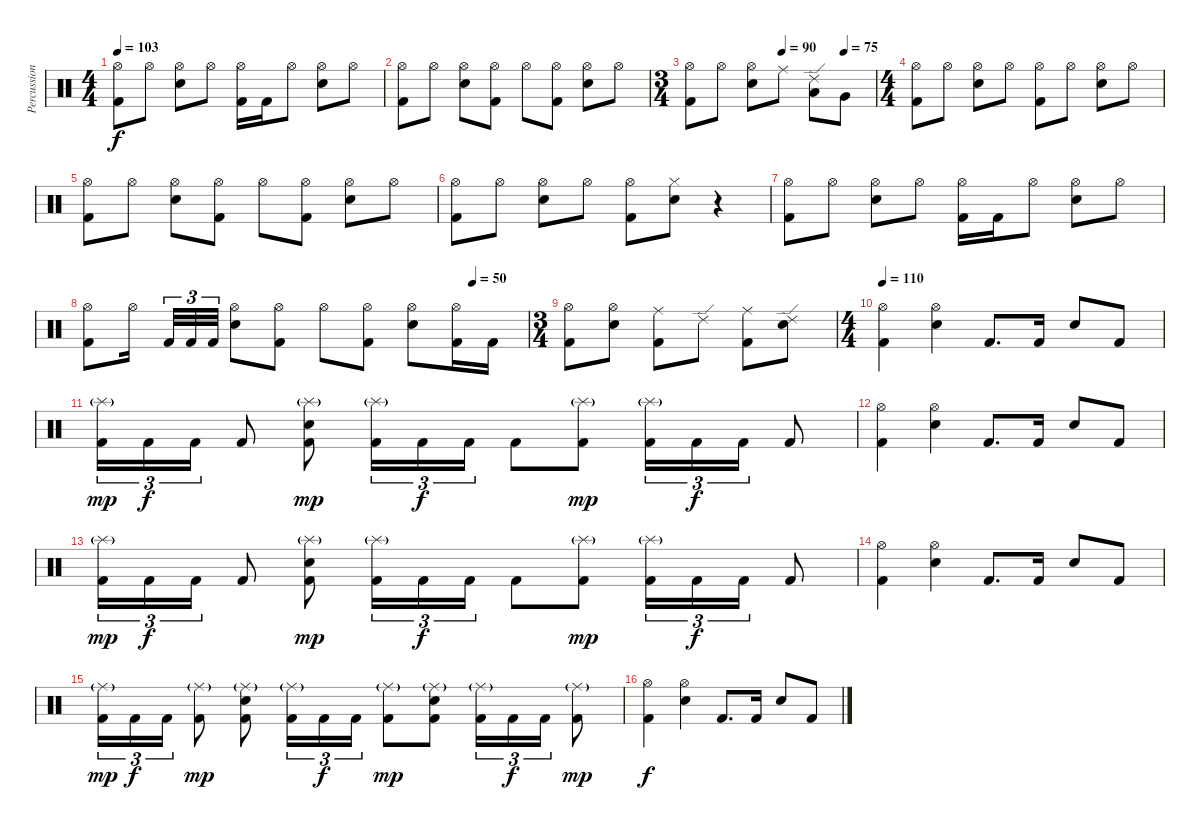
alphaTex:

\track ("Percussion" "Percussion") {instrument percussion}
\staff {score}
\articulation defaults
\ts (4 4)
\tempo 103
\clef neutral
\ks c
("Hi-Hat (open)" "Kick (hit) 2").8{dy f} "Hi-Hat (open)".8 ("Hi-Hat (open)" "Electric Snare (hit)").8 "Hi-Hat (open)".8 ("Hi-Hat (open)" "Kick (hit) 2").16 "Kick (hit) 2".16 "Hi-Hat (open)".8 ("Hi-Hat (open)" "Electric Snare (hit)").8 "Hi-Hat (open)".8 |
("Hi-Hat (open)" "Kick (hit) 2").8 "Hi-Hat (open)".8 ("Hi-Hat (open)" "Electric Snare (hit)").8 ("Hi-Hat (open)" "Kick (hit) 2").8 "Hi-Hat (open)".8 ("Hi-Hat (open)" "Kick (hit) 2").8 ("Hi-Hat (open)" "Electric Snare (hit)").8 "Hi-Hat (open)".8 |
\ts (3 4)
\tempo (90 0.5)
\tempo (75 0.8333333333333334)
("Hi-Hat (open)" "Kick (hit) 2").8 "Hi-Hat (open)".8 ("Hi-Hat (open)" "Electric Snare (hit)").8 "Ride (middle)".8 ("Ride (edge) 2" "Low Tom (hit)").8 "Very Low Tom (hit)".8 |
\ts (4 4)
("Hi-Hat (open)" "Kick (hit) 2").8 "Hi-Hat (open)".8 ("Hi-Hat (open)" "Electric Snare (hit)").8 "Hi-Hat (open)".8 ("Hi-Hat (open)" "Kick (hit) 2").8 "Hi-Hat (open)".8 ("Hi-Hat (open)" "Electric Snare (hit)").8 "Hi-Hat (open)".8 |
("Hi-Hat (open)" "Kick (hit) 2").8 "Hi-Hat (open)".8 ("Hi-Hat (open)" "Electric Snare (hit)").8 ("Hi-Hat (open)" "Kick (hit) 2").8 "Hi-Hat (open)".8 ("Hi-Hat (open)" "Kick (hit) 2").8 ("Hi-Hat (open)" "Electric Snare (hit)").8 "Hi-Hat (open)".8 |
("Hi-Hat (open)" "Kick (hit) 2").8 "Hi-Hat (open)".8 ("Hi-Hat (open)" "Electric Snare (hit)").8 "Hi-Hat (open)".8 ("Hi-Hat (open)" "Kick (hit) 2").8 ("Hi-Hat (closed)" "Electric Snare (hit)").8 r.4 |
("Hi-Hat (open)" "Kick (hit) 2").8 "Hi-Hat (open)".8 ("Hi-Hat (open)" "Electric Snare (hit)").8 "Hi-Hat (open)".8 ("Hi-Hat (open)" "Kick (hit) 2").16 "Kick (hit) 2".16 "Hi-Hat (open)".8 ("Hi-Hat (open)" "Electric Snare (hit)").8 "Hi-Hat (open)".8 |
\tempo (50 0.875)
("Hi-Hat (open)" "Kick (hit) 2").8 "Hi-Hat (open)".16{beam splitsecondary} "Kick (hit) 2".32{tu (3 2)} "Kick (hit) 2".32{tu (3 2)} "Kick (hit) 2".32{tu (3 2)} ("Hi-Hat (open)" "Electric Snare (hit)").8 ("Hi-Hat (open)" "Kick (hit) 2").8 "Hi-Hat (open)".8 ("Hi-Hat (open)" "Kick (hit) 2").8 ("Hi-Hat (open)" "Electric Snare (hit)").8 ("Hi-Hat (open)" "Kick (hit) 2").16 "Kick (hit) 2".16 |
\ts (3 4)
("Hi-Hat (open)" "Kick (hit) 2").8 ("Hi-Hat (open)" "Electric Snare (hit)").8 ("Ride (middle)" "Kick (hit) 2").8 "Ride (edge) 2".8 ("Ride (middle)" "Kick (hit) 2").8 ("Ride (edge) 2" "Electric Snare (hit)").8 |
\ts (4 4)
\tempo 110
("Hi-Hat (open)" "Kick (hit) 2").4 ("Hi-Hat (open)" "Electric Snare (hit)").4 "Kick (hit) 2".8{d} "Kick (hit) 2".16 "Electric Snare (hit)".8 "Kick (hit) 2".8 |
("Splash (hit)"{g} "Kick (hit) 2").16{tu (3 2) dy mp} "Kick (hit) 2".16{tu (3 2) dy f} "Kick (hit) 2".16{tu (3 2)} "Kick (hit) 2".8 ("Splash (hit)"{g} "Electric Snare (hit)" "Kick (hit) 2").8{dy mp} ("Splash (hit)"{g} "Kick (hit) 2").16{tu (3 2)} "Kick (hit) 2".16{tu (3 2) dy f} "Kick (hit) 2".16{tu (3 2)} "Kick (hit) 2".8 ("Splash (hit)"{g} "Kick (hit) 2").8{dy mp} ("Splash (hit)"{g} "Kick (hit) 2").16{tu (3 2)} "Kick (hit) 2".16{tu (3 2) dy f} "Kick (hit) 2".16{tu (3 2)} "Kick (hit) 2".8 |
("Hi-Hat (open)" "Kick (hit) 2").4 ("Hi-Hat (open)" "Electric Snare (hit)").4 "Kick (hit) 2".8{d} "Kick (hit) 2".16 "Electric Snare (hit)".8 "Kick (hit) 2".8 |
("Splash (hit)"{g} "Kick (hit) 2").16{tu (3 2) dy mp} "Kick (hit) 2".16{tu (3 2) dy f} "Kick (hit) 2".16{tu (3 2)} "Kick (hit) 2".8 ("Splash (hit)"{g} "Electric Snare (hit)" "Kick (hit) 2").8{dy mp} ("Splash (hit)"{g} "Kick (hit) 2").16{tu (3 2)} "Kick (hit) 2".16{tu (3 2) dy f} "Kick (hit) 2".16{tu (3 2)} "Kick (hit) 2".8 ("Splash (hit)"{g} "Kick (hit) 2").8{dy mp} ("Splash (hit)"{g} "Kick (hit) 2").16{tu (3 2)} "Kick (hit) 2".16{tu (3 2) dy f} "Kick (hit) 2".16{tu (3 2)} "Kick (hit) 2".8 |
("Hi-Hat (open)" "Kick (hit) 2").4 ("Hi-Hat (open)" "Electric Snare (hit)").4 "Kick (hit) 2".8{d} "Kick (hit) 2".16 "Electric Snare (hit)".8 "Kick (hit) 2".8 |
("Ride (middle)"{g} "Kick (hit) 2").16{tu (3 2) dy mp} "Kick (hit) 2".16{tu (3 2) dy f} "Kick (hit) 2".16{tu (3 2)} ("Ride (middle)"{g} "Kick (hit) 2").8{dy mp} ("Ride (middle)"{g} "Electric Snare (hit)" "Kick (hit) 2").8 ("Ride (middle)"{g} "Kick (hit) 2").16{tu (3 2)} "Kick (hit) 2".16{tu (3 2) dy f} "Kick (hit) 2".16{tu (3 2)} ("Ride (middle)"{g} "Kick (hit) 2").8{dy mp} ("Ride (middle)"{g} "Electric Snare (hit)" "Kick (hit) 2").8 ("Ride (middle)"{g} "Kick (hit) 2").16{tu (3 2)} "Kick (hit) 2".16{tu (3 2) dy f} "Kick (hit) 2".16{tu (3 2)} ("Ride (middle)"{g} "Kick (hit) 2").8{dy mp} |
("Hi-Hat (open)" "Kick (hit) 2").4{dy f} ("Hi-Hat (open)" "Electric Snare (hit)").4 "Kick (hit) 2".8{d} "Kick (hit) 2".16 "Electric Snare (hit)".8 "Kick (hit) 2".8
